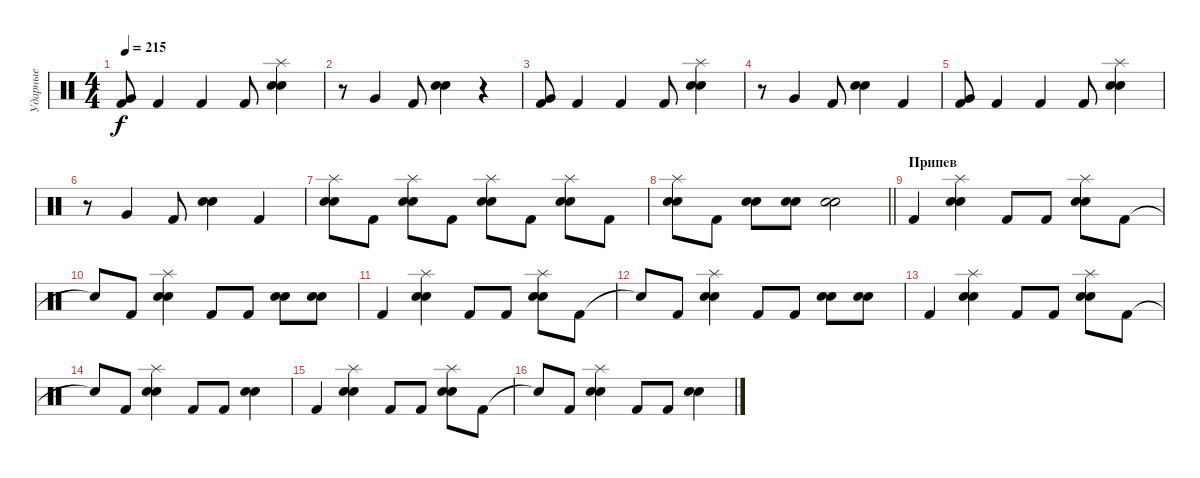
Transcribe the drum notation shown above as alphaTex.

\track ("Ударные" "Ударные") {instrument percussion}
\staff {score}
\articulation defaults
\ts (4 4)
\tempo 215
\clef neutral
\ks c
("Very Low Tom (hit)" "Kick (hit) 2").8{dy f} "Kick (hit) 2".4 "Kick (hit) 2".4 "Kick (hit) 2".8 ("Splash (hit)" "Electric Snare (hit)" "Snare (hit) 2").4 |
r.8 "Very Low Tom (hit)".4 "Kick (hit) 2".8 ("Electric Snare (hit)" "Snare (hit) 2").4 r.4 |
("Very Low Tom (hit)" "Kick (hit) 2").8 "Kick (hit) 2".4 "Kick (hit) 2".4 "Kick (hit) 2".8 ("Splash (hit)" "Electric Snare (hit)" "Snare (hit) 2").4 |
r.8 "Very Low Tom (hit)".4 "Kick (hit) 2".8 ("Electric Snare (hit)" "Snare (hit) 2").4 "Kick (hit) 2".4 |
("Very Low Tom (hit)" "Kick (hit) 2").8 "Kick (hit) 2".4 "Kick (hit) 2".4 "Kick (hit) 2".8 ("Splash (hit)" "Electric Snare (hit)" "Snare (hit) 2").4 |
r.8 "Very Low Tom (hit)".4 "Kick (hit) 2".8 ("Electric Snare (hit)" "Snare (hit) 2").4 "Kick (hit) 2".4 |
("Splash (hit)" "Electric Snare (hit)" "Snare (hit) 2").8 "Kick (hit) 2".8 ("Splash (hit)" "Electric Snare (hit)" "Snare (hit) 2").8 "Kick (hit) 2".8 ("Splash (hit)" "Electric Snare (hit)" "Snare (hit) 2").8 "Kick (hit) 2".8 ("Splash (hit)" "Electric Snare (hit)" "Snare (hit) 2").8 "Kick (hit) 2".8 |
\barLineRight lightlight
("Splash (hit)" "Electric Snare (hit)" "Snare (hit) 2").8 "Kick (hit) 2".8 ("Electric Snare (hit)" "Snare (hit) 2").8 ("Electric Snare (hit)" "Snare (hit) 2").8 ("Electric Snare (hit)" "Snare (hit) 2").2 |
\section ("" "Припев")
"Kick (hit) 2".4 ("Splash (hit)" "Electric Snare (hit)" "Snare (hit) 2").4 "Kick (hit) 2".8 "Kick (hit) 2".8 ("Splash (hit)" "Electric Snare (hit)" "Snare (hit) 2").8 "Kick (hit) 2".8 |
"Snare (hit)"{t}.8 "Kick (hit) 2".8 ("Splash (hit)" "Electric Snare (hit)" "Snare (hit) 2").4 "Kick (hit) 2".8 "Kick (hit) 2".8 ("Electric Snare (hit)" "Snare (hit) 2").8 ("Electric Snare (hit)" "Snare (hit) 2").8 |
"Kick (hit) 2".4 ("Splash (hit)" "Electric Snare (hit)" "Snare (hit) 2").4 "Kick (hit) 2".8 "Kick (hit) 2".8 ("Splash (hit)" "Electric Snare (hit)" "Snare (hit) 2").8 "Kick (hit) 2".8 |
"Snare (hit)"{t}.8 "Kick (hit) 2".8 ("Splash (hit)" "Electric Snare (hit)" "Snare (hit) 2").4 "Kick (hit) 2".8 "Kick (hit) 2".8 ("Electric Snare (hit)" "Snare (hit) 2").8 ("Electric Snare (hit)" "Snare (hit) 2").8 |
"Kick (hit) 2".4 ("Splash (hit)" "Electric Snare (hit)" "Snare (hit) 2").4 "Kick (hit) 2".8 "Kick (hit) 2".8 ("Splash (hit)" "Electric Snare (hit)" "Snare (hit) 2").8 "Kick (hit) 2".8 |
"Snare (hit)"{t}.8 "Kick (hit) 2".8 ("Splash (hit)" "Electric Snare (hit)" "Snare (hit) 2").4 "Kick (hit) 2".8 "Kick (hit) 2".8 ("Electric Snare (hit)" "Snare (hit) 2").4 |
"Kick (hit) 2".4 ("Splash (hit)" "Electric Snare (hit)" "Snare (hit) 2").4 "Kick (hit) 2".8 "Kick (hit) 2".8 ("Splash (hit)" "Electric Snare (hit)" "Snare (hit) 2").8 "Kick (hit) 2".8 |
"Snare (hit)"{t}.8 "Kick (hit) 2".8 ("Splash (hit)" "Electric Snare (hit)" "Snare (hit) 2").4 "Kick (hit) 2".8 "Kick (hit) 2".8 ("Electric Snare (hit)" "Snare (hit) 2").4
